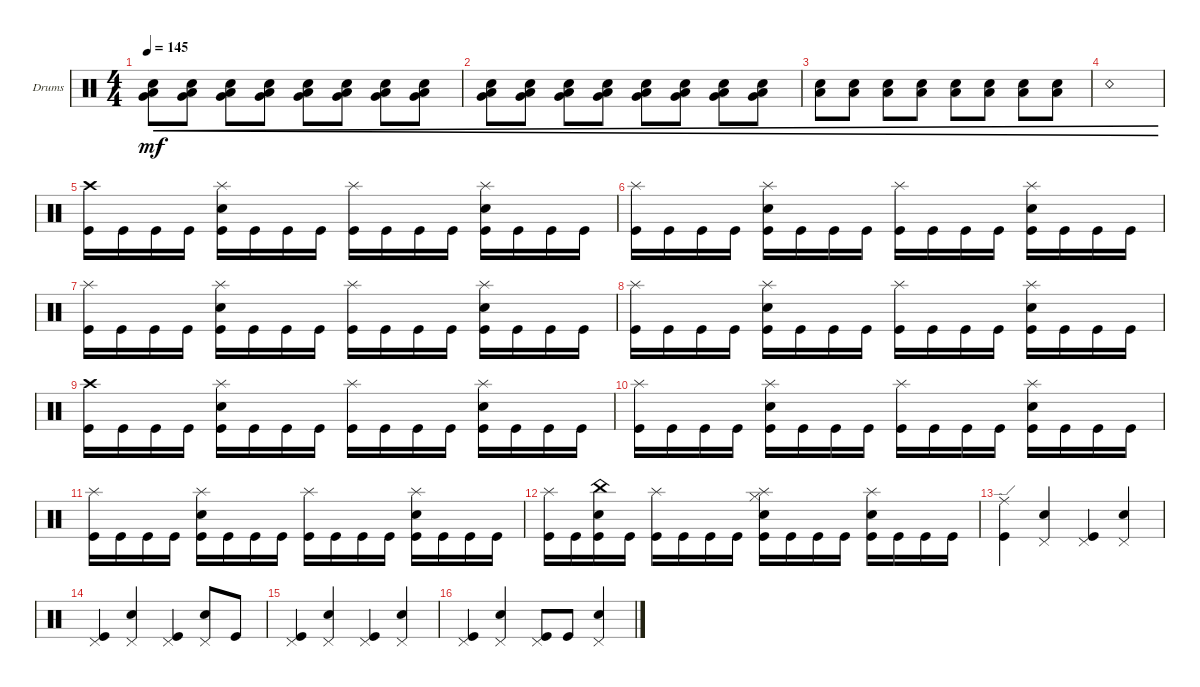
\bracketExtendMode groupsimilarinstruments
\firstSystemTrackNameOrientation horizontal
\otherSystemsTrackNameOrientation horizontal
\track ("Drumkit" "Drums") {instrument percussion}
\staff {score}
\articulation defaults
\ts (4 4)
\tempo 145
\clef neutral
\ks c
("Low Tom (hit)" "Very Low Tom (hit)" "Snare (hit) 2").8{cre dy mf} ("Snare (hit) 2" "Low Tom (hit)" "Very Low Tom (hit)").8{cre} ("Snare (hit) 2" "Low Tom (hit)" "Very Low Tom (hit)").8{cre} ("Snare (hit) 2" "Low Tom (hit)" "Very Low Tom (hit)").8{cre} ("Snare (hit) 2" "Low Tom (hit)" "Very Low Tom (hit)").8{cre} ("Snare (hit) 2" "Low Tom (hit)" "Very Low Tom (hit)").8{cre} ("Snare (hit) 2" "Low Tom (hit)" "Very Low Tom (hit)").8{cre} ("Snare (hit) 2" "Low Tom (hit)" "Very Low Tom (hit)").8{cre} |
("Low Tom (hit)" "Very Low Tom (hit)" "Snare (hit) 2").8{cre} ("Snare (hit) 2" "Low Tom (hit)" "Very Low Tom (hit)").8{cre} ("Snare (hit) 2" "Low Tom (hit)" "Very Low Tom (hit)").8{cre} ("Snare (hit) 2" "Low Tom (hit)" "Very Low Tom (hit)").8{cre} ("Snare (hit) 2" "Low Tom (hit)" "Very Low Tom (hit)").8{cre} ("Snare (hit) 2" "Low Tom (hit)" "Very Low Tom (hit)").8{cre} ("Snare (hit) 2" "Low Tom (hit)" "Very Low Tom (hit)").8{cre} ("Snare (hit) 2" "Low Tom (hit)" "Very Low Tom (hit)").8{cre} |
("Snare (hit) 2" "Low Tom (hit)").8{cre} ("Snare (hit) 2" "Low Tom (hit)").8{cre} ("Snare (hit) 2" "Low Tom (hit)").8{cre} ("Snare (hit) 2" "Low Tom (hit)").8{cre} ("Snare (hit) 2" "Low Tom (hit)").8{cre} ("Snare (hit) 2" "Low Tom (hit)").8{cre} ("Snare (hit) 2" "Low Tom (hit)").8{cre} ("Snare (hit) 2" "Low Tom (hit)").8{cre} |
"Snare (rim shot)".1{cre} |
("Kick (hit)" "Crash high (hit)").16 "Kick (hit)".16 "Kick (hit)".16 "Kick (hit)".16 ("Kick (hit)" "Snare (hit) 2" "Splash (hit)").16 "Kick (hit)".16 "Kick (hit)".16 "Kick (hit)".16 ("Kick (hit)" "Splash (hit)").16 "Kick (hit)".16 "Kick (hit)".16 "Kick (hit)".16 ("Kick (hit)" "Snare (hit) 2" "Splash (hit)").16 "Kick (hit)".16 "Kick (hit)".16 "Kick (hit)".16 |
("Kick (hit)" "Splash (hit)").16 "Kick (hit)".16 "Kick (hit)".16 "Kick (hit)".16 ("Kick (hit)" "Snare (hit) 2" "Splash (hit)").16 "Kick (hit)".16 "Kick (hit)".16 "Kick (hit)".16 ("Kick (hit)" "Splash (hit)").16 "Kick (hit)".16 "Kick (hit)".16 "Kick (hit)".16 ("Kick (hit)" "Snare (hit) 2" "Splash (hit)").16 "Kick (hit)".16 "Kick (hit)".16 "Kick (hit)".16 |
("Kick (hit)" "Splash (hit)").16 "Kick (hit)".16 "Kick (hit)".16 "Kick (hit)".16 ("Kick (hit)" "Snare (hit) 2" "Splash (hit)").16 "Kick (hit)".16 "Kick (hit)".16 "Kick (hit)".16 ("Kick (hit)" "Splash (hit)").16 "Kick (hit)".16 "Kick (hit)".16 "Kick (hit)".16 ("Kick (hit)" "Snare (hit) 2" "Splash (hit)").16 "Kick (hit)".16 "Kick (hit)".16 "Kick (hit)".16 |
("Kick (hit)" "Splash (hit)").16 "Kick (hit)".16 "Kick (hit)".16 "Kick (hit)".16 ("Kick (hit)" "Snare (hit) 2" "Splash (hit)").16 "Kick (hit)".16 "Kick (hit)".16 "Kick (hit)".16 ("Kick (hit)" "Splash (hit)").16 "Kick (hit)".16 "Kick (hit)".16 "Kick (hit)".16 ("Kick (hit)" "Snare (hit) 2" "Splash (hit)").16 "Kick (hit)".16 "Kick (hit)".16 "Kick (hit)".16 |
("Kick (hit)" "Crash high (hit)").16 "Kick (hit)".16 "Kick (hit)".16 "Kick (hit)".16 ("Kick (hit)" "Snare (hit) 2" "Splash (hit)").16 "Kick (hit)".16 "Kick (hit)".16 "Kick (hit)".16 ("Kick (hit)" "Splash (hit)").16 "Kick (hit)".16 "Kick (hit)".16 "Kick (hit)".16 ("Kick (hit)" "Snare (hit) 2" "Splash (hit)").16 "Kick (hit)".16 "Kick (hit)".16 "Kick (hit)".16 |
("Kick (hit)" "Splash (hit)").16 "Kick (hit)".16 "Kick (hit)".16 "Kick (hit)".16 ("Kick (hit)" "Snare (hit) 2" "Splash (hit)").16 "Kick (hit)".16 "Kick (hit)".16 "Kick (hit)".16 ("Kick (hit)" "Splash (hit)").16 "Kick (hit)".16 "Kick (hit)".16 "Kick (hit)".16 ("Kick (hit)" "Snare (hit) 2" "Splash (hit)").16 "Kick (hit)".16 "Kick (hit)".16 "Kick (hit)".16 |
("Kick (hit)" "Splash (hit)").16 "Kick (hit)".16 "Kick (hit)".16 "Kick (hit)".16 ("Kick (hit)" "Snare (hit) 2" "Splash (hit)").16 "Kick (hit)".16 "Kick (hit)".16 "Kick (hit)".16 ("Kick (hit)" "Splash (hit)").16 "Kick (hit)".16 "Kick (hit)".16 "Kick (hit)".16 ("Kick (hit)" "Snare (hit) 2" "Splash (hit)").16 "Kick (hit)".16 "Kick (hit)".16 "Kick (hit)".16 |
("Kick (hit)" "Splash (hit)").16 "Kick (hit)".16 ("Kick (hit)" "Snare (hit) 2" "China (hit)").16 "Kick (hit)".16 ("Kick (hit)" "Splash (hit)").16 "Kick (hit)".16 "Kick (hit)".16 "Kick (hit)".16 ("Kick (hit)" "Splash (hit)" "Snare (hit) 2" "Hi-Hat (closed)").16 "Kick (hit)".16 "Kick (hit)".16 "Kick (hit)".16 ("Kick (hit)" "Snare (hit) 2" "Splash (hit)").16 "Kick (hit)".16 "Kick (hit)".16 "Kick (hit)".16 |
("Kick (hit)" "Ride (edge)").4 ("Pedal Hi-Hat (hit)" "Snare (hit) 2").4 ("Kick (hit)" "Pedal Hi-Hat (hit)").4 ("Snare (hit) 2" "Pedal Hi-Hat (hit)").4 |
("Kick (hit)" "Pedal Hi-Hat (hit)").4 ("Pedal Hi-Hat (hit)" "Snare (hit) 2").4 ("Kick (hit)" "Pedal Hi-Hat (hit)").4 ("Snare (hit) 2" "Pedal Hi-Hat (hit)").8 "Kick (hit)".8 |
("Kick (hit)" "Pedal Hi-Hat (hit)").4 ("Pedal Hi-Hat (hit)" "Snare (hit) 2").4 ("Kick (hit)" "Pedal Hi-Hat (hit)").4 ("Snare (hit) 2" "Pedal Hi-Hat (hit)").4 |
("Kick (hit)" "Pedal Hi-Hat (hit)").4 ("Pedal Hi-Hat (hit)" "Snare (hit) 2").4 ("Kick (hit)" "Pedal Hi-Hat (hit)").8 "Kick (hit)".8 ("Snare (hit) 2" "Pedal Hi-Hat (hit)").4
